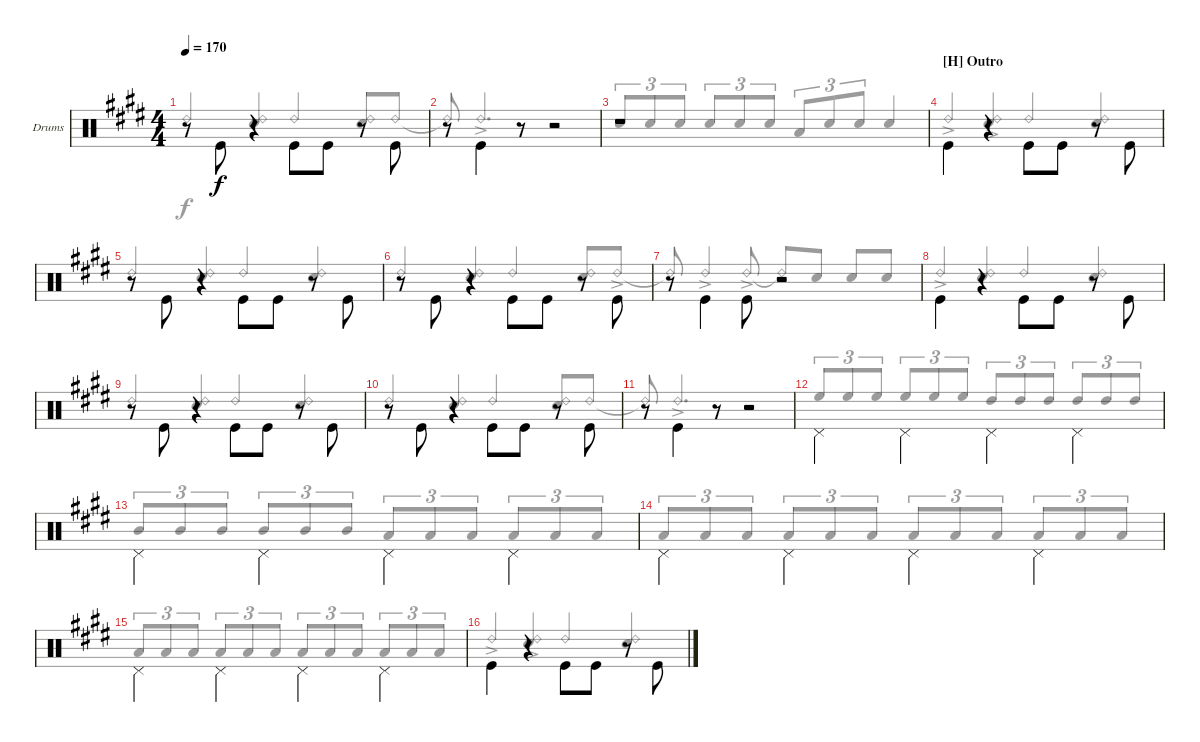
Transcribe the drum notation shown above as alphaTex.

\bracketExtendMode groupsimilarinstruments
\firstSystemTrackNameOrientation horizontal
\otherSystemsTrackNameOrientation horizontal
\track ("Drums" "Drums") {instrument percussion}
\staff {score}
\articulation defaults
\voice
\ts (4 4)
\tempo 170
\clef neutral
\scale
1.06557
\ks e
r.8{dy f} "Kick (hit)".8{beam invert} r.4 "Kick (hit)".8{beam invert} "Kick (hit)".8 r.8 "Kick (hit)".8{beam invert} |
\scale
0.934426 r.8 "Kick (hit)".4{beam invert} r.8 r.2 |
\scale
1.06557 r.1 |
\section ("H" "Outro")
\scale
0.934426 "Kick (hit)".4{beam invert} r.4{beam invert} "Kick (hit)".8{beam invert} "Kick (hit)".8 r.8 "Kick (hit)".8{beam invert} |
\scale
1.06557 r.8 "Kick (hit)".8{beam invert} r.4 "Kick (hit)".8{beam invert} "Kick (hit)".8 r.8 "Kick (hit)".8{beam invert} |
\scale
0.934426 r.8 "Kick (hit)".8{beam invert} r.4 "Kick (hit)".8{beam invert} "Kick (hit)".8 r.8 "Kick (hit)".8{beam invert} |
\scale
1.06557 r.8 "Kick (hit)".4{beam invert} "Kick (hit)".8{beam invert} r.2 |
\scale
0.934426 "Kick (hit)".4{beam invert} r.4{beam invert} "Kick (hit)".8{beam invert} "Kick (hit)".8 r.8 "Kick (hit)".8{beam invert} |
\scale
1.06557 r.8 "Kick (hit)".8{beam invert} r.4 "Kick (hit)".8{beam invert} "Kick (hit)".8 r.8 "Kick (hit)".8{beam invert} |
\scale
0.934426 r.8 "Kick (hit)".8{beam invert} r.4 "Kick (hit)".8{beam invert} "Kick (hit)".8 r.8 "Kick (hit)".8{beam invert} |
\scale
1.06557 r.8 "Kick (hit)".4{beam invert} r.8 r.2 |
\scale
0.934426 "Pedal Hi-Hat (hit)".4{beam invert} "Pedal Hi-Hat (hit)".4{beam invert} "Pedal Hi-Hat (hit)".4{beam invert} "Pedal Hi-Hat (hit)".4{beam invert} |
\scale
1.06557 "Pedal Hi-Hat (hit)".4{beam invert} "Pedal Hi-Hat (hit)".4{beam invert} "Pedal Hi-Hat (hit)".4{beam invert} "Pedal Hi-Hat (hit)".4{beam invert} |
\scale
0.934426 "Pedal Hi-Hat (hit)".4{beam invert} "Pedal Hi-Hat (hit)".4{beam invert} "Pedal Hi-Hat (hit)".4{beam invert} "Pedal Hi-Hat (hit)".4{beam invert} |
\scale
1.06557 "Pedal Hi-Hat (hit)".4{beam invert} "Pedal Hi-Hat (hit)".4{beam invert} "Pedal Hi-Hat (hit)".4{beam invert} "Pedal Hi-Hat (hit)".4{beam invert} |
\scale
0.934426 "Kick (hit)".4{beam invert} r.4{beam invert} "Kick (hit)".8{beam invert} "Kick (hit)".8 r.8 "Kick (hit)".8{beam invert}
\voice
\clef neutral
\ottava regular
\simile none
\scale
1.06557
\ks e "Ride (bell) 2".4{dy f beam invert}
("Ride (bell) 2" "Snare (hit) 2").4{beam invert} "Ride (bell) 2".4{beam invert} ("Ride (bell) 2" "Snare (hit) 2").8{beam invert} "Ride (bell) 2".8 |
\scale
0.934426 "Ride (bell) 2"{t}.8{beam invert} "Ride (bell) 2"{ac}.4{d beam invert} r.2 |
\scale
1.06557 "Snare (hit) 2".8{tu (3 2) beam invert} "Snare (hit) 2".8{tu (3 2)} "Snare (hit) 2".8{tu (3 2)} "Snare (hit) 2".8{tu (3 2) beam invert} "Snare (hit) 2".8{tu (3 2)} "Snare (hit) 2".8{tu (3 2)} "Low Tom (hit)".8{tu (3 2) beam invert} "Snare (hit) 2".8{tu (3 2)} "Snare (hit) 2".8{tu (3 2)} "Snare (hit) 2".4{beam invert} |
\scale
0.934426 "Ride (bell) 2"{ac}.4{beam invert} ("Ride (bell) 2"{ac} "Snare (hit) 2"{ac}).4{beam invert} "Ride (bell) 2".4{beam invert} ("Ride (bell) 2" "Snare (hit) 2").4{beam invert} |
\scale
1.06557 "Ride (bell) 2".4{beam invert} ("Ride (bell) 2" "Snare (hit) 2").4{beam invert} "Ride (bell) 2".4{beam invert} ("Ride (bell) 2" "Snare (hit) 2").4{beam invert} |
\scale
0.934426 "Ride (bell) 2".4{beam invert} ("Ride (bell) 2" "Snare (hit) 2").4{beam invert} "Ride (bell) 2".4{beam invert} ("Ride (bell) 2" "Snare (hit) 2").8{beam invert} "Ride (bell) 2"{ac}.8 |
\scale
1.06557 "Ride (bell) 2"{t}.8{beam invert} "Ride (bell) 2"{ac}.4{beam invert} "Ride (bell) 2"{ac}.8{beam invert} "Ride (bell) 2"{t}.8{beam invert} "Snare (hit) 2".8 "Snare (hit) 2".8{beam invert} "Snare (hit) 2".8 |
\scale
0.934426 "Ride (bell) 2"{ac}.4{beam invert} ("Ride (bell) 2" "Snare (hit) 2").4{beam invert} "Ride (bell) 2".4{beam invert} ("Ride (bell) 2" "Snare (hit) 2").4{beam invert} |
\scale
1.06557 "Ride (bell) 2".4{beam invert} ("Ride (bell) 2" "Snare (hit) 2").4{beam invert} "Ride (bell) 2".4{beam invert} ("Ride (bell) 2" "Snare (hit) 2").4{beam invert} |
\scale
0.934426 "Ride (bell) 2".4{beam invert} ("Ride (bell) 2" "Snare (hit) 2").4{beam invert} "Ride (bell) 2".4{beam invert} ("Ride (bell) 2" "Snare (hit) 2").8{beam invert} "Ride (bell) 2".8 |
\scale
1.06557 "Ride (bell) 2"{t}.8{beam invert} "Ride (bell) 2"{ac}.4{d beam invert} r.2 |
\scale
0.934426 "High Floor Tom (hit)".8{tu (3 2) beam invert} "High Floor Tom (hit)".8{tu (3 2)} "High Floor Tom (hit)".8{tu (3 2)} "High Floor Tom (hit)".8{tu (3 2) beam invert} "High Floor Tom (hit)".8{tu (3 2)} "High Floor Tom (hit)".8{tu (3 2)} "High Tom (hit)".8{tu (3 2) beam invert} "High Tom (hit)".8{tu (3 2)} "High Tom (hit)".8{tu (3 2)} "High Tom (hit)".8{tu (3 2) beam invert} "High Tom (hit)".8{tu (3 2)} "High Tom (hit)".8{tu (3 2)} |
\scale
1.06557 "Mid Tom (hit)".8{tu (3 2) beam invert} "Mid Tom (hit)".8{tu (3 2)} "Mid Tom (hit)".8{tu (3 2)} "Mid Tom (hit)".8{tu (3 2) beam invert} "Mid Tom (hit)".8{tu (3 2)} "Mid Tom (hit)".8{tu (3 2)} "Low Tom (hit)".8{tu (3 2) beam invert} "Low Tom (hit)".8{tu (3 2)} "Low Tom (hit)".8{tu (3 2)} "Low Tom (hit)".8{tu (3 2) beam invert} "Low Tom (hit)".8{tu (3 2)} "Low Tom (hit)".8{tu (3 2)} |
\scale
0.934426 "Low Tom (hit)".8{tu (3 2) beam invert} "Low Tom (hit)".8{tu (3 2)} "Low Tom (hit)".8{tu (3 2)} "Low Tom (hit)".8{tu (3 2) beam invert} "Low Tom (hit)".8{tu (3 2)} "Low Tom (hit)".8{tu (3 2)} "Low Tom (hit)".8{tu (3 2) beam invert} "Low Tom (hit)".8{tu (3 2)} "Low Tom (hit)".8{tu (3 2)} "Low Tom (hit)".8{tu (3 2) beam invert} "Low Tom (hit)".8{tu (3 2)} "Low Tom (hit)".8{tu (3 2)} |
\scale
1.06557 "Low Tom (hit)".8{tu (3 2) beam invert} "Low Tom (hit)".8{tu (3 2)} "Low Tom (hit)".8{tu (3 2)} "Low Tom (hit)".8{tu (3 2) beam invert} "Low Tom (hit)".8{tu (3 2)} "Low Tom (hit)".8{tu (3 2)} "Low Tom (hit)".8{tu (3 2) beam invert} "Low Tom (hit)".8{tu (3 2)} "Low Tom (hit)".8{tu (3 2)} "Low Tom (hit)".8{tu (3 2) beam invert} "Low Tom (hit)".8{tu (3 2)} "Low Tom (hit)".8{tu (3 2)} |
\scale
0.934426 "Ride (bell) 2"{ac}.4{beam invert} ("Ride (bell) 2"{ac} "Snare (hit) 2"{ac}).4{beam invert} "Ride (bell) 2".4{beam invert} ("Ride (bell) 2" "Snare (hit) 2").4{beam invert}
